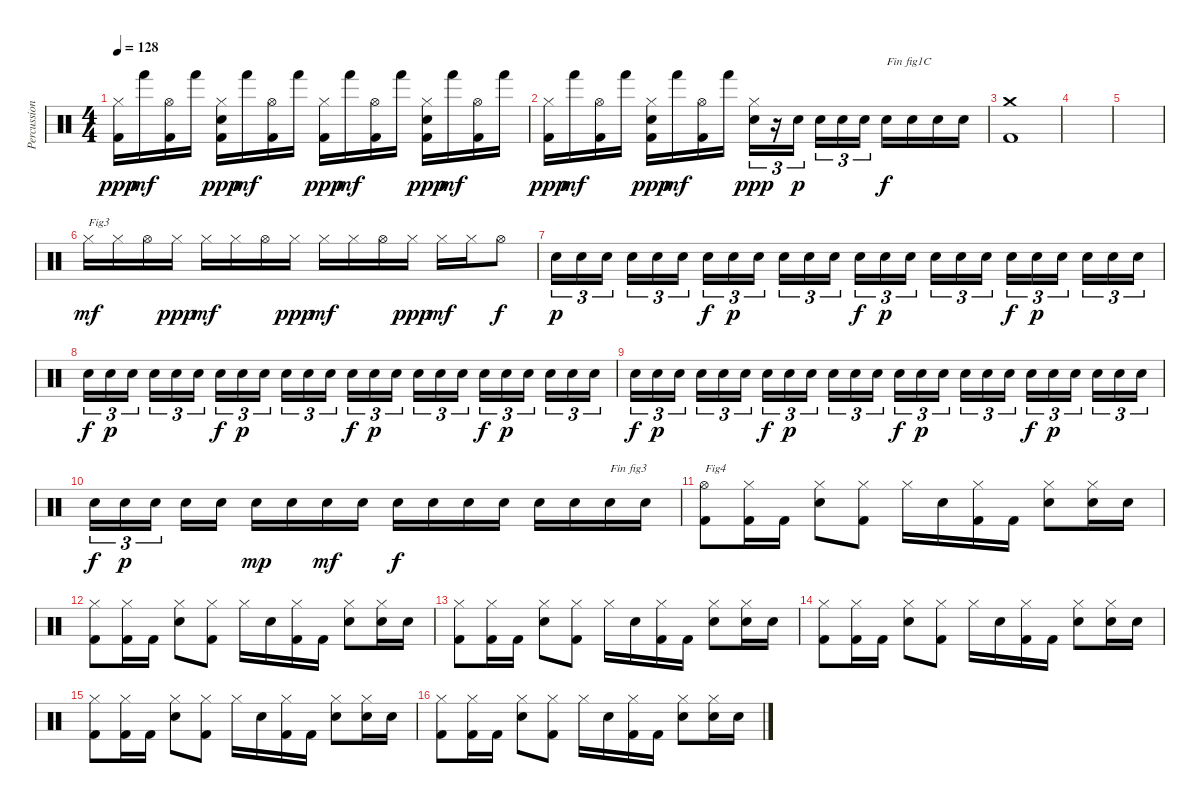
\track ("Percussions" "Percussion") {instrument percussion}
\staff {score}
\articulation defaults
\ts (4 4)
\tempo 128
\clef neutral
\ks c
("Kick (hit) 2" "Hi-Hat (closed)").16{dy ppp} "Hand (hit)".16{dy mf} ("Kick (hit) 2" "Hi-Hat (open)").16 "Hand (hit)".16 ("Kick (hit) 2" "Electric Snare (hit)" "Hi-Hat (closed)").16{dy ppp} "Hand (hit)".16{dy mf} ("Kick (hit) 2" "Hi-Hat (open)").16 "Hand (hit)".16 ("Kick (hit) 2" "Hi-Hat (closed)").16{dy ppp} "Hand (hit)".16{dy mf} ("Kick (hit) 2" "Hi-Hat (open)").16 "Hand (hit)".16 ("Kick (hit) 2" "Electric Snare (hit)" "Hi-Hat (closed)").16{dy ppp} "Hand (hit)".16{dy mf} ("Kick (hit) 2" "Hi-Hat (open)").16 "Hand (hit)".16 |
("Kick (hit) 2" "Hi-Hat (closed)").16{dy ppp} "Hand (hit)".16{dy mf} ("Kick (hit) 2" "Hi-Hat (open)").16 "Hand (hit)".16 ("Kick (hit) 2" "Electric Snare (hit)" "Hi-Hat (closed)").16{dy ppp} "Hand (hit)".16{dy mf} ("Kick (hit) 2" "Hi-Hat (open)").16 "Hand (hit)".16 ("Electric Snare (hit)" "Hi-Hat (closed)").16{tu (3 2) dy ppp} r.16{tu (3 2)} "Electric Snare (hit)".16{tu (3 2) dy p} "Electric Snare (hit)".16{tu (3 2)} "Electric Snare (hit)".16{tu (3 2)} "Electric Snare (hit)".16{tu (3 2)} "Electric Snare (hit)".16{txt "Fin fig1C" dy f} "Electric Snare (hit)".16 "Electric Snare (hit)".16 "Electric Snare (hit)".16 |
("Kick (hit) 2" "Crash medium (hit)").1 |
|
|
"Hi-Hat (closed)".16{txt "Fig3" dy mf} "Hi-Hat (closed)".16 "Hi-Hat (open)".16 "Hi-Hat (closed)".16{dy ppp} "Hi-Hat (closed)".16{dy mf} "Hi-Hat (closed)".16 "Hi-Hat (open)".16 "Hi-Hat (closed)".16{dy ppp} "Hi-Hat (closed)".16{dy mf} "Hi-Hat (closed)".16 "Hi-Hat (open)".16 "Hi-Hat (closed)".16{dy ppp} "Hi-Hat (closed)".16{dy mf} "Hi-Hat (closed)".16 "Hi-Hat (open)".8{dy f} |
"Electric Snare (hit)".16{tu (3 2) dy p} "Electric Snare (hit)".16{tu (3 2)} "Electric Snare (hit)".16{tu (3 2)} "Electric Snare (hit)".16{tu (3 2)} "Electric Snare (hit)".16{tu (3 2)} "Electric Snare (hit)".16{tu (3 2)} "Electric Snare (hit)".16{tu (3 2) dy f} "Electric Snare (hit)".16{tu (3 2) dy p} "Electric Snare (hit)".16{tu (3 2)} "Electric Snare (hit)".16{tu (3 2)} "Electric Snare (hit)".16{tu (3 2)} "Electric Snare (hit)".16{tu (3 2)} "Electric Snare (hit)".16{tu (3 2) dy f} "Electric Snare (hit)".16{tu (3 2) dy p} "Electric Snare (hit)".16{tu (3 2)} "Electric Snare (hit)".16{tu (3 2)} "Electric Snare (hit)".16{tu (3 2)} "Electric Snare (hit)".16{tu (3 2)} "Electric Snare (hit)".16{tu (3 2) dy f} "Electric Snare (hit)".16{tu (3 2) dy p} "Electric Snare (hit)".16{tu (3 2)} "Electric Snare (hit)".16{tu (3 2)} "Electric Snare (hit)".16{tu (3 2)} "Electric Snare (hit)".16{tu (3 2)} |
"Electric Snare (hit)".16{tu (3 2) dy f} "Electric Snare (hit)".16{tu (3 2) dy p} "Electric Snare (hit)".16{tu (3 2)} "Electric Snare (hit)".16{tu (3 2)} "Electric Snare (hit)".16{tu (3 2)} "Electric Snare (hit)".16{tu (3 2)} "Electric Snare (hit)".16{tu (3 2) dy f} "Electric Snare (hit)".16{tu (3 2) dy p} "Electric Snare (hit)".16{tu (3 2)} "Electric Snare (hit)".16{tu (3 2)} "Electric Snare (hit)".16{tu (3 2)} "Electric Snare (hit)".16{tu (3 2)} "Electric Snare (hit)".16{tu (3 2) dy f} "Electric Snare (hit)".16{tu (3 2) dy p} "Electric Snare (hit)".16{tu (3 2)} "Electric Snare (hit)".16{tu (3 2)} "Electric Snare (hit)".16{tu (3 2)} "Electric Snare (hit)".16{tu (3 2)} "Electric Snare (hit)".16{tu (3 2) dy f} "Electric Snare (hit)".16{tu (3 2) dy p} "Electric Snare (hit)".16{tu (3 2)} "Electric Snare (hit)".16{tu (3 2)} "Electric Snare (hit)".16{tu (3 2)} "Electric Snare (hit)".16{tu (3 2)} |
"Electric Snare (hit)".16{tu (3 2) dy f} "Electric Snare (hit)".16{tu (3 2) dy p} "Electric Snare (hit)".16{tu (3 2)} "Electric Snare (hit)".16{tu (3 2)} "Electric Snare (hit)".16{tu (3 2)} "Electric Snare (hit)".16{tu (3 2)} "Electric Snare (hit)".16{tu (3 2) dy f} "Electric Snare (hit)".16{tu (3 2) dy p} "Electric Snare (hit)".16{tu (3 2)} "Electric Snare (hit)".16{tu (3 2)} "Electric Snare (hit)".16{tu (3 2)} "Electric Snare (hit)".16{tu (3 2)} "Electric Snare (hit)".16{tu (3 2) dy f} "Electric Snare (hit)".16{tu (3 2) dy p} "Electric Snare (hit)".16{tu (3 2)} "Electric Snare (hit)".16{tu (3 2)} "Electric Snare (hit)".16{tu (3 2)} "Electric Snare (hit)".16{tu (3 2)} "Electric Snare (hit)".16{tu (3 2) dy f} "Electric Snare (hit)".16{tu (3 2) dy p} "Electric Snare (hit)".16{tu (3 2)} "Electric Snare (hit)".16{tu (3 2)} "Electric Snare (hit)".16{tu (3 2)} "Electric Snare (hit)".16{tu (3 2)} |
"Electric Snare (hit)".16{tu (3 2) dy f} "Electric Snare (hit)".16{tu (3 2) dy p} "Electric Snare (hit)".16{tu (3 2)} "Electric Snare (hit)".16 "Electric Snare (hit)".16 "Electric Snare (hit)".16{dy mp} "Electric Snare (hit)".16 "Electric Snare (hit)".16{dy mf} "Electric Snare (hit)".16 "Electric Snare (hit)".16{dy f} "Electric Snare (hit)".16 "Electric Snare (hit)".16 "Electric Snare (hit)".16 "Electric Snare (hit)".16 "Electric Snare (hit)".16 "Electric Snare (hit)".16{txt "Fin fig3"} "Electric Snare (hit)".16 |
("Kick (hit) 2" "Hi-Hat (open)").8{txt "Fig4"} ("Kick (hit) 2" "Hi-Hat (closed)").16 "Kick (hit) 2".16 ("Electric Snare (hit)" "Hi-Hat (closed)").8 ("Kick (hit) 2" "Hi-Hat (closed)").8 "Hi-Hat (closed)".16 "Electric Snare (hit)".16 ("Kick (hit) 2" "Hi-Hat (closed)").16 "Kick (hit) 2".16 ("Electric Snare (hit)" "Hi-Hat (closed)").8 ("Electric Snare (hit)" "Hi-Hat (closed)").16 "Electric Snare (hit)".16 |
("Kick (hit) 2" "Hi-Hat (closed)").8 ("Kick (hit) 2" "Hi-Hat (closed)").16 "Kick (hit) 2".16 ("Electric Snare (hit)" "Hi-Hat (closed)").8 ("Kick (hit) 2" "Hi-Hat (closed)").8 "Hi-Hat (closed)".16 "Electric Snare (hit)".16 ("Kick (hit) 2" "Hi-Hat (closed)").16 "Kick (hit) 2".16 ("Electric Snare (hit)" "Hi-Hat (closed)").8 ("Electric Snare (hit)" "Hi-Hat (closed)").16 "Electric Snare (hit)".16 |
("Kick (hit) 2" "Hi-Hat (closed)").8 ("Kick (hit) 2" "Hi-Hat (closed)").16 "Kick (hit) 2".16 ("Electric Snare (hit)" "Hi-Hat (closed)").8 ("Kick (hit) 2" "Hi-Hat (closed)").8 "Hi-Hat (closed)".16 "Electric Snare (hit)".16 ("Kick (hit) 2" "Hi-Hat (closed)").16 "Kick (hit) 2".16 ("Electric Snare (hit)" "Hi-Hat (closed)").8 ("Electric Snare (hit)" "Hi-Hat (closed)").16 "Electric Snare (hit)".16 |
("Kick (hit) 2" "Hi-Hat (closed)").8 ("Kick (hit) 2" "Hi-Hat (closed)").16 "Kick (hit) 2".16 ("Electric Snare (hit)" "Hi-Hat (closed)").8 ("Kick (hit) 2" "Hi-Hat (closed)").8 "Hi-Hat (closed)".16 "Electric Snare (hit)".16 ("Kick (hit) 2" "Hi-Hat (closed)").16 "Kick (hit) 2".16 ("Electric Snare (hit)" "Hi-Hat (closed)").8 ("Electric Snare (hit)" "Hi-Hat (closed)").16 "Electric Snare (hit)".16 |
("Kick (hit) 2" "Hi-Hat (closed)").8 ("Kick (hit) 2" "Hi-Hat (closed)").16 "Kick (hit) 2".16 ("Electric Snare (hit)" "Hi-Hat (closed)").8 ("Kick (hit) 2" "Hi-Hat (closed)").8 "Hi-Hat (closed)".16 "Electric Snare (hit)".16 ("Kick (hit) 2" "Hi-Hat (closed)").16 "Kick (hit) 2".16 ("Electric Snare (hit)" "Hi-Hat (closed)").8 ("Electric Snare (hit)" "Hi-Hat (closed)").16 "Electric Snare (hit)".16 |
("Kick (hit) 2" "Hi-Hat (closed)").8 ("Kick (hit) 2" "Hi-Hat (closed)").16 "Kick (hit) 2".16 ("Electric Snare (hit)" "Hi-Hat (closed)").8 ("Kick (hit) 2" "Hi-Hat (closed)").8 "Hi-Hat (closed)".16 "Electric Snare (hit)".16 ("Kick (hit) 2" "Hi-Hat (closed)").16 "Kick (hit) 2".16 ("Electric Snare (hit)" "Hi-Hat (closed)").8 ("Electric Snare (hit)" "Hi-Hat (closed)").16 "Electric Snare (hit)".16
